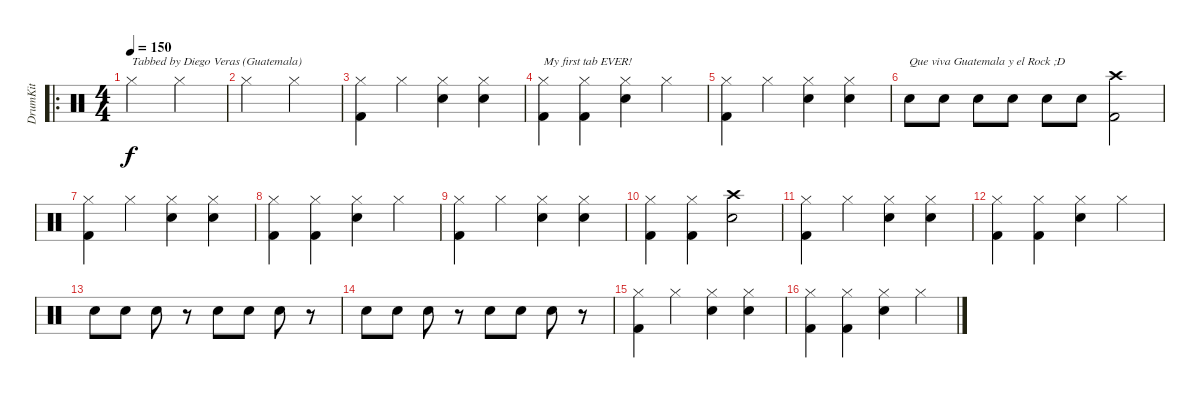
\track ("DrumKit" "DrumKit") {instrument percussion}
\staff {score}
\articulation defaults
\ro
\ts (4 4)
\tempo 150
\clef neutral
\ks c "Hi-Hat (closed)".2{txt "Tabbed by Diego Veras (Guatemala)" dy f} "Hi-Hat (closed)".2
|
"Hi-Hat (closed)".2 "Hi-Hat (closed)".2 |
("Hi-Hat (closed)" "Kick (hit) 2").4 "Hi-Hat (closed)".4 ("Hi-Hat (closed)" "Snare (hit) 2").4 ("Hi-Hat (closed)" "Snare (hit) 2").4 |
("Hi-Hat (closed)" "Kick (hit) 2").4{txt "My first tab EVER! "} ("Hi-Hat (closed)" "Kick (hit) 2").4 ("Hi-Hat (closed)" "Snare (hit) 2").4 "Hi-Hat (closed)".4 |
("Hi-Hat (closed)" "Kick (hit) 2").4 "Hi-Hat (closed)".4 ("Hi-Hat (closed)" "Snare (hit) 2").4 ("Hi-Hat (closed)" "Snare (hit) 2").4 |
"Snare (hit) 2".8{txt "Que viva Guatemala y el Rock ;D"} "Snare (hit) 2".8 "Snare (hit) 2".8 "Snare (hit) 2".8 "Snare (hit) 2".8 "Snare (hit) 2".8 ("Crash high (hit)" "Kick (hit) 2").2 |
("Hi-Hat (closed)" "Kick (hit) 2").4 "Hi-Hat (closed)".4 ("Hi-Hat (closed)" "Snare (hit) 2").4 ("Hi-Hat (closed)" "Snare (hit) 2").4 |
("Hi-Hat (closed)" "Kick (hit) 2").4 ("Hi-Hat (closed)" "Kick (hit) 2").4 ("Hi-Hat (closed)" "Snare (hit) 2").4 "Hi-Hat (closed)".4 |
("Hi-Hat (closed)" "Kick (hit) 2").4 "Hi-Hat (closed)".4 ("Hi-Hat (closed)" "Snare (hit) 2").4 ("Hi-Hat (closed)" "Snare (hit) 2").4 |
("Hi-Hat (closed)" "Kick (hit) 2").4 ("Hi-Hat (closed)" "Kick (hit) 2").4 ("Crash high (hit)" "Snare (hit) 2").2 |
("Hi-Hat (closed)" "Kick (hit) 2").4 "Hi-Hat (closed)".4 ("Hi-Hat (closed)" "Snare (hit) 2").4 ("Hi-Hat (closed)" "Snare (hit) 2").4 |
("Hi-Hat (closed)" "Kick (hit) 2").4 ("Hi-Hat (closed)" "Kick (hit) 2").4 ("Hi-Hat (closed)" "Snare (hit) 2").4 "Hi-Hat (closed)".4 |
"Snare (hit) 2".8 "Snare (hit) 2".8 "Snare (hit) 2".8 r.8 "Snare (hit) 2".8 "Snare (hit) 2".8 "Snare (hit) 2".8 r.8 |
"Snare (hit) 2".8 "Snare (hit) 2".8 "Snare (hit) 2".8 r.8 "Snare (hit) 2".8 "Snare (hit) 2".8 "Snare (hit) 2".8 r.8 |
("Hi-Hat (closed)" "Kick (hit) 2").4 "Hi-Hat (closed)".4 ("Hi-Hat (closed)" "Snare (hit) 2").4 ("Hi-Hat (closed)" "Snare (hit) 2").4 |
("Hi-Hat (closed)" "Kick (hit) 2").4 ("Hi-Hat (closed)" "Kick (hit) 2").4 ("Hi-Hat (closed)" "Snare (hit) 2").4 "Hi-Hat (closed)".4
